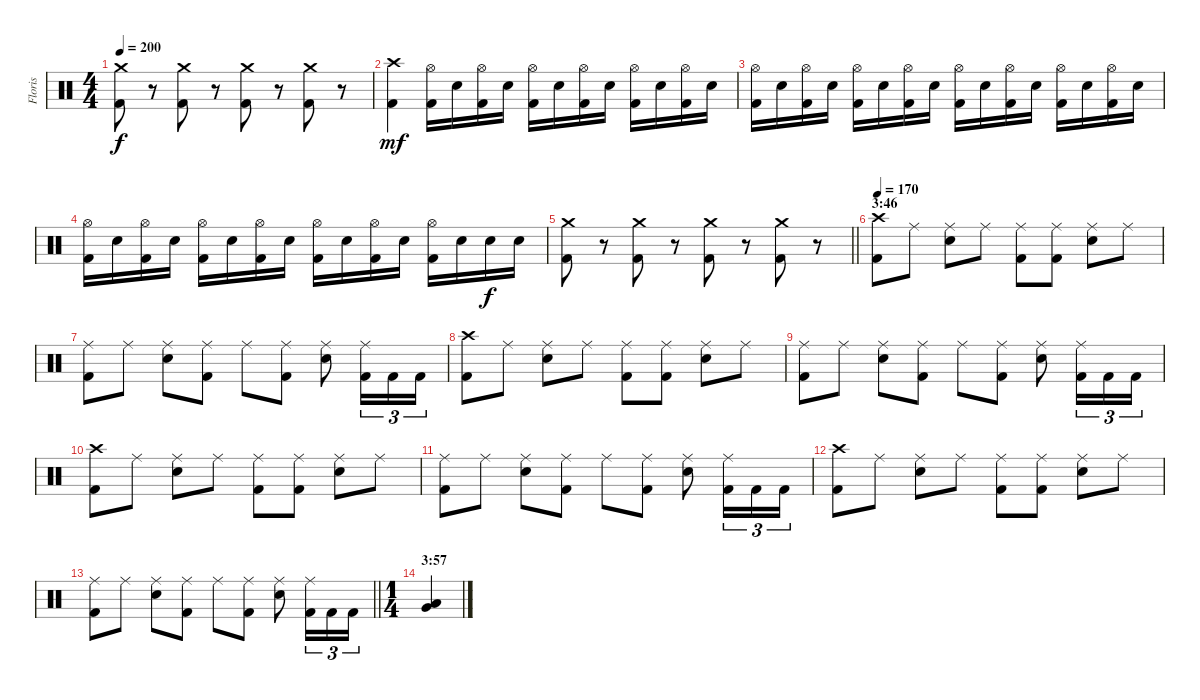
\track ("Floris" "Floris") {instrument percussion}
\staff {score}
\articulation defaults
\ts (4 4)
\tempo 200
\clef neutral
\ks c
("Crash medium (hit)" "Kick (hit) 2").8{dy f} r.8{volume 0} ("Crash medium (hit)" "Kick (hit) 2").8{volume 16} r.8{volume 0} ("Crash medium (hit)" "Kick (hit) 2").8{volume 16} r.8{volume 0} ("Crash medium (hit)" "Kick (hit) 2").8{volume 16} r.8{volume 0} |
("Crash high (hit)" "Kick (hit) 2").4{dy mf volume 16} ("Hi-Hat (open)" "Kick (hit) 2").16 "Electric Snare (hit)".16 ("Hi-Hat (open)" "Kick (hit) 2").16 "Electric Snare (hit)".16 ("Hi-Hat (open)" "Kick (hit) 2").16 "Electric Snare (hit)".16 ("Hi-Hat (open)" "Kick (hit) 2").16 "Electric Snare (hit)".16 ("Hi-Hat (open)" "Kick (hit) 2").16 "Electric Snare (hit)".16 ("Hi-Hat (open)" "Kick (hit) 2").16 "Electric Snare (hit)".16 |
("Hi-Hat (open)" "Kick (hit) 2").16 "Electric Snare (hit)".16 ("Hi-Hat (open)" "Kick (hit) 2").16 "Electric Snare (hit)".16 ("Hi-Hat (open)" "Kick (hit) 2").16 "Electric Snare (hit)".16 ("Hi-Hat (open)" "Kick (hit) 2").16 "Electric Snare (hit)".16 ("Hi-Hat (open)" "Kick (hit) 2").16 "Electric Snare (hit)".16 ("Hi-Hat (open)" "Kick (hit) 2").16 "Electric Snare (hit)".16 ("Hi-Hat (open)" "Kick (hit) 2").16 "Electric Snare (hit)".16 ("Hi-Hat (open)" "Kick (hit) 2").16 "Electric Snare (hit)".16 |
("Hi-Hat (open)" "Kick (hit) 2").16 "Electric Snare (hit)".16 ("Hi-Hat (open)" "Kick (hit) 2").16 "Electric Snare (hit)".16 ("Hi-Hat (open)" "Kick (hit) 2").16 "Electric Snare (hit)".16 ("Hi-Hat (open)" "Kick (hit) 2").16 "Electric Snare (hit)".16 ("Hi-Hat (open)" "Kick (hit) 2").16 "Electric Snare (hit)".16 ("Hi-Hat (open)" "Kick (hit) 2").16 "Electric Snare (hit)".16 ("Hi-Hat (open)" "Kick (hit) 2").16 "Electric Snare (hit)".16 "Electric Snare (hit)".16{dy f} "Electric Snare (hit)".16 |
\barLineRight lightlight
("Crash medium (hit)" "Kick (hit) 2").8 r.8{volume 0} ("Crash medium (hit)" "Kick (hit) 2").8{volume 16} r.8{volume 0} ("Crash medium (hit)" "Kick (hit) 2").8{volume 16} r.8{volume 0} ("Crash medium (hit)" "Kick (hit) 2").8{volume 16} r.8{volume 0} |
\section ("" "3:46")
\tempo 170
("Crash high (hit)" "Kick (hit) 2").8{volume 16} "Ride (middle)".8 ("Ride (middle)" "Electric Snare (hit)").8 "Ride (middle)".8 ("Ride (middle)" "Kick (hit) 2").8 ("Ride (middle)" "Kick (hit) 2").8 ("Ride (middle)" "Electric Snare (hit)").8 "Ride (middle)".8 |
("Ride (middle)" "Kick (hit) 2").8 "Ride (middle)".8 ("Ride (middle)" "Electric Snare (hit)").8 ("Ride (middle)" "Kick (hit) 2").8 "Ride (middle)".8 ("Ride (middle)" "Kick (hit) 2").8 ("Ride (middle)" "Electric Snare (hit)").8 ("Ride (middle)" "Kick (hit) 2").16{tu (3 2)} "Kick (hit) 2".16{tu (3 2)} "Kick (hit) 2".16{tu (3 2)} |
("Crash high (hit)" "Kick (hit) 2").8 "Ride (middle)".8 ("Ride (middle)" "Electric Snare (hit)").8 "Ride (middle)".8 ("Ride (middle)" "Kick (hit) 2").8 ("Ride (middle)" "Kick (hit) 2").8 ("Ride (middle)" "Electric Snare (hit)").8 "Ride (middle)".8 |
("Ride (middle)" "Kick (hit) 2").8 "Ride (middle)".8 ("Ride (middle)" "Electric Snare (hit)").8 ("Ride (middle)" "Kick (hit) 2").8 "Ride (middle)".8 ("Ride (middle)" "Kick (hit) 2").8 ("Ride (middle)" "Electric Snare (hit)").8 ("Ride (middle)" "Kick (hit) 2").16{tu (3 2)} "Kick (hit) 2".16{tu (3 2)} "Kick (hit) 2".16{tu (3 2)} |
("Crash high (hit)" "Kick (hit) 2").8 "Ride (middle)".8 ("Ride (middle)" "Electric Snare (hit)").8 "Ride (middle)".8 ("Ride (middle)" "Kick (hit) 2").8 ("Ride (middle)" "Kick (hit) 2").8 ("Ride (middle)" "Electric Snare (hit)").8 "Ride (middle)".8 |
("Ride (middle)" "Kick (hit) 2").8 "Ride (middle)".8 ("Ride (middle)" "Electric Snare (hit)").8 ("Ride (middle)" "Kick (hit) 2").8 "Ride (middle)".8 ("Ride (middle)" "Kick (hit) 2").8 ("Ride (middle)" "Electric Snare (hit)").8 ("Ride (middle)" "Kick (hit) 2").16{tu (3 2)} "Kick (hit) 2".16{tu (3 2)} "Kick (hit) 2".16{tu (3 2)} |
("Crash high (hit)" "Kick (hit) 2").8 "Ride (middle)".8 ("Ride (middle)" "Electric Snare (hit)").8 "Ride (middle)".8 ("Ride (middle)" "Kick (hit) 2").8 ("Ride (middle)" "Kick (hit) 2").8 ("Ride (middle)" "Electric Snare (hit)").8 "Ride (middle)".8 |
\barLineRight lightlight
("Ride (middle)" "Kick (hit) 2").8 "Ride (middle)".8 ("Ride (middle)" "Electric Snare (hit)").8 ("Ride (middle)" "Kick (hit) 2").8 "Ride (middle)".8 ("Ride (middle)" "Kick (hit) 2").8 ("Ride (middle)" "Electric Snare (hit)").8 ("Ride (middle)" "Kick (hit) 2").16{tu (3 2)} "Kick (hit) 2".16{tu (3 2)} "Kick (hit) 2".16{tu (3 2)} |
\ts (1 4)
\section ("" "3:57")
("Low Floor Tom (hit)" "Very Low Tom (hit)").4
